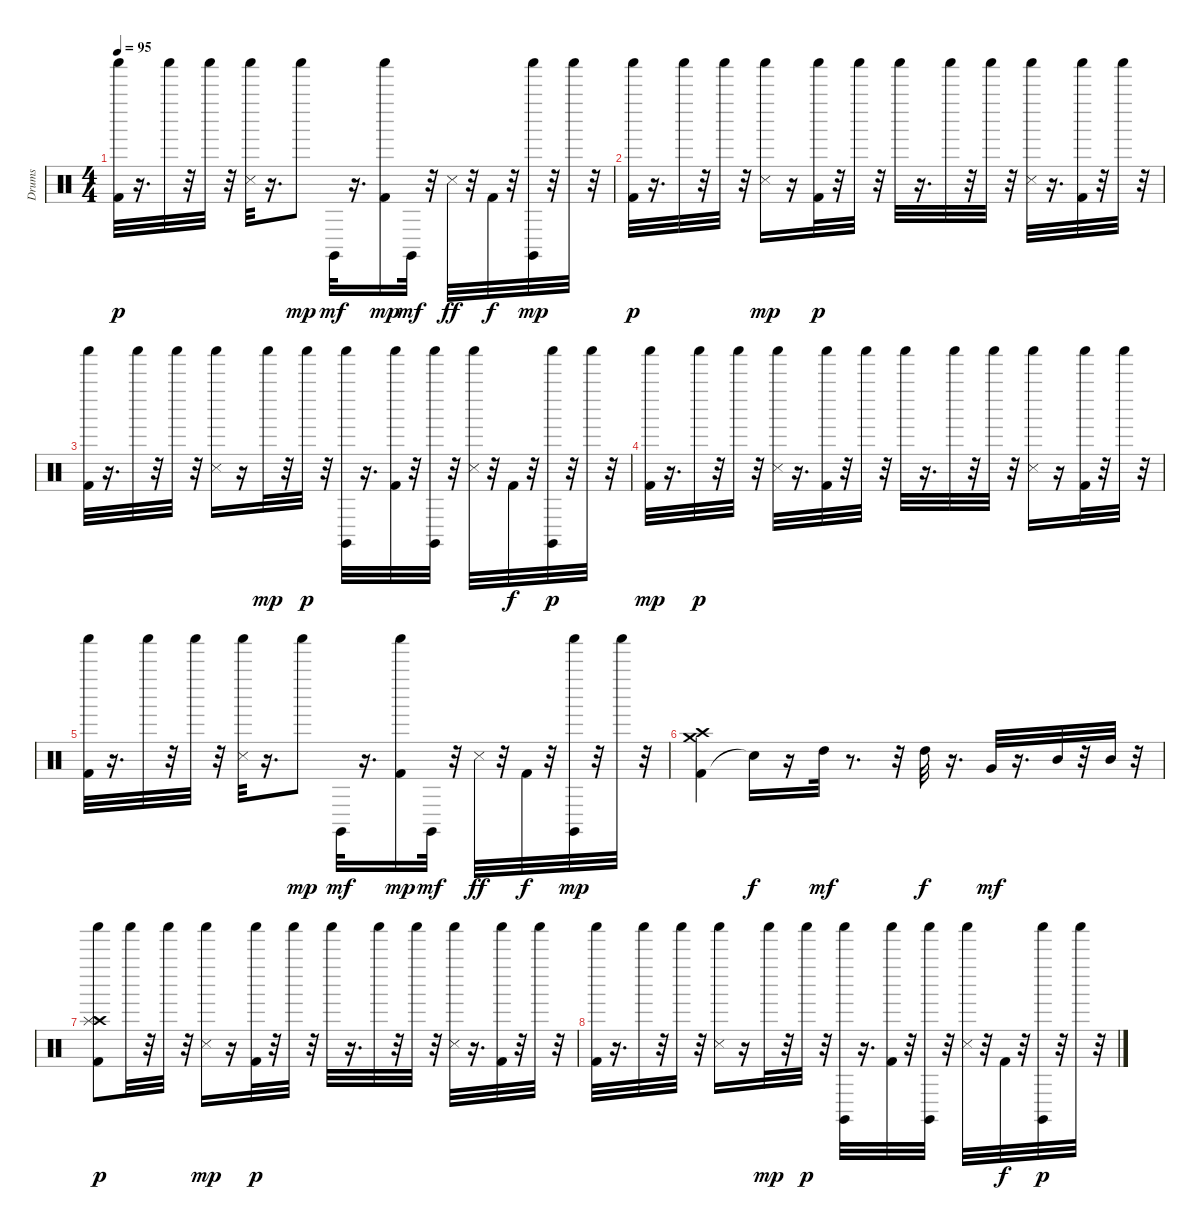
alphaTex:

\track ("Drums" "Drums") {instrument percussion}
\staff {score}
\articulation defaults
\ts (4 4)
\tempo 95
\clef neutral
\ks c
("Kick (hit) 2" "Shaker (hit)").32{dy p} r.16{d} "Shaker (hit)".32 r.32 "Shaker (hit)".32 r.32 ("Snare (side stick) 3" "Shaker (hit)").32 r.16{d} "Shaker (hit)".8{dy mp} "Claves (hit)".32{dy mf} r.16{d} ("Kick (hit) 2" "Shaker (hit)").16{dy mp} "Claves (hit)".32{dy mf} r.32 "Snare (side stick) 3".32{dy ff} r.32 "Kick (hit) 2".32{dy f} r.32 ("Claves (hit)" "Shaker (hit)").32{dy mp} r.32 "Shaker (hit)".32 r.32 |
("Kick (hit) 2" "Shaker (hit)").32{dy p} r.16{d} "Shaker (hit)".32 r.32 "Shaker (hit)".32 r.32 ("Snare (side stick) 3" "Shaker (hit)").16{dy mp} r.16 ("Kick (hit) 2" "Shaker (hit)").32{dy p} r.32 "Shaker (hit)".32 r.32 "Shaker (hit)".32 r.16{d} "Shaker (hit)".32 r.32 "Shaker (hit)".32 r.32 ("Snare (side stick) 3" "Shaker (hit)").32 r.16{d} ("Kick (hit) 2" "Shaker (hit)").32 r.32 "Shaker (hit)".32 r.32 |
("Kick (hit) 2" "Shaker (hit)").32 r.16{d} "Shaker (hit)".32 r.32 "Shaker (hit)".32 r.32 ("Snare (side stick) 3" "Shaker (hit)").16 r.16 "Shaker (hit)".32{dy mp} r.32 "Shaker (hit)".32{dy p} r.32 ("Claves (hit)" "Shaker (hit)").32 r.16{d} ("Kick (hit) 2" "Shaker (hit)").32 r.32 ("Claves (hit)" "Shaker (hit)").32 r.32 ("Snare (side stick) 3" "Shaker (hit)").32 r.32 "Kick (hit) 2".32{dy f} r.32 ("Claves (hit)" "Shaker (hit)").32{dy p} r.32 "Shaker (hit)".32 r.32 |
("Kick (hit) 2" "Shaker (hit)").32{dy mp} r.16{d} "Shaker (hit)".32{dy p} r.32 "Shaker (hit)".32 r.32 ("Snare (side stick) 3" "Shaker (hit)").32 r.16{d} ("Kick (hit) 2" "Shaker (hit)").32 r.32 "Shaker (hit)".32 r.32 "Shaker (hit)".32 r.16{d} "Shaker (hit)".32 r.32 "Shaker (hit)".32 r.32 ("Snare (side stick) 3" "Shaker (hit)").16 r.16 ("Kick (hit) 2" "Shaker (hit)").32 r.32 "Shaker (hit)".32 r.32 |
("Kick (hit) 2" "Shaker (hit)").32 r.16{d} "Shaker (hit)".32 r.32 "Shaker (hit)".32 r.32 ("Snare (side stick) 3" "Shaker (hit)").32 r.16{d} "Shaker (hit)".8{dy mp} "Claves (hit)".32{dy mf} r.16{d} ("Kick (hit) 2" "Shaker (hit)").16{dy mp} "Claves (hit)".32{dy mf} r.32 "Snare (side stick) 3".32{dy ff} r.32 "Kick (hit) 2".32{dy f} r.32 ("Claves (hit)" "Shaker (hit)").32{dy mp} r.32 "Shaker (hit)".32 r.32 |
("Kick (hit) 2" "Crash high (hit)" "Crash medium (hit)").4 "Snare (hit)"{t}.16{dy f} r.16 "High Tom (hit)".32{dy mf} r.8{d} r.32 "High Tom (hit)".32{dy f} r.16{d} "Very Low Tom (hit)".32{dy mf} r.16{d} "Mid Tom (hit)".32 r.32 "Mid Tom (hit)".32 r.32 |
("Kick (hit) 2" "Crash high (hit)" "Splash (hit)" "Shaker (hit)").8{dy p} "Shaker (hit)".32 r.32 "Shaker (hit)".32 r.32 ("Snare (side stick) 3" "Shaker (hit)").16{dy mp} r.16 ("Kick (hit) 2" "Shaker (hit)").32{dy p} r.32 "Shaker (hit)".32 r.32 "Shaker (hit)".32 r.16{d} "Shaker (hit)".32 r.32 "Shaker (hit)".32 r.32 ("Snare (side stick) 3" "Shaker (hit)").32 r.16{d} ("Kick (hit) 2" "Shaker (hit)").32 r.32 "Shaker (hit)".32 r.32 |
("Kick (hit) 2" "Shaker (hit)").32 r.16{d} "Shaker (hit)".32 r.32 "Shaker (hit)".32 r.32 ("Snare (side stick) 3" "Shaker (hit)").16 r.16 "Shaker (hit)".32{dy mp} r.32 "Shaker (hit)".32{dy p} r.32 ("Claves (hit)" "Shaker (hit)").32 r.16{d} ("Kick (hit) 2" "Shaker (hit)").32 r.32 ("Claves (hit)" "Shaker (hit)").32 r.32 ("Snare (side stick) 3" "Shaker (hit)").32 r.32 "Kick (hit) 2".32{dy f} r.32 ("Claves (hit)" "Shaker (hit)").32{dy p} r.32 "Shaker (hit)".32 r.32
